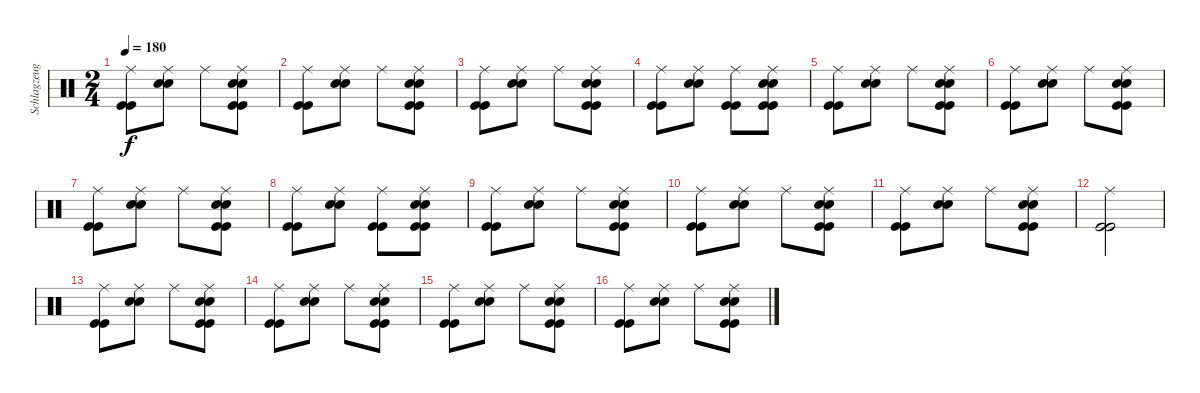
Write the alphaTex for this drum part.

\track ("Schlagzeug" "Schlagzeug") {instrument percussion}
\staff {score}
\articulation defaults
\ts (2 4)
\tempo 180
\clef neutral
\ks c
("Ride (middle)" "Kick (hit)" "Kick (hit)").8{dy f} ("Ride (middle)" "Electric Snare (hit)" "Electric Snare (hit)").8 "Ride (middle)".8 ("Ride (middle)" "Electric Snare (hit)" "Electric Snare (hit)" "Kick (hit)" "Kick (hit)").8 |
("Ride (middle)" "Kick (hit)" "Kick (hit)").8 ("Ride (middle)" "Electric Snare (hit)" "Electric Snare (hit)").8 "Ride (middle)".8 ("Ride (middle)" "Electric Snare (hit)" "Electric Snare (hit)" "Kick (hit)" "Kick (hit)").8 |
("Ride (middle)" "Kick (hit)" "Kick (hit)").8 ("Ride (middle)" "Electric Snare (hit)" "Electric Snare (hit)").8 "Ride (middle)".8 ("Ride (middle)" "Electric Snare (hit)" "Electric Snare (hit)" "Kick (hit)" "Kick (hit)").8 |
("Ride (middle)" "Kick (hit)" "Kick (hit)").8 ("Ride (middle)" "Electric Snare (hit)" "Electric Snare (hit)").8 ("Ride (middle)" "Kick (hit)" "Kick (hit)").8 ("Ride (middle)" "Electric Snare (hit)" "Electric Snare (hit)" "Kick (hit)" "Kick (hit)").8 |
("Ride (middle)" "Kick (hit)" "Kick (hit)").8 ("Ride (middle)" "Electric Snare (hit)" "Electric Snare (hit)").8 "Ride (middle)".8 ("Ride (middle)" "Electric Snare (hit)" "Electric Snare (hit)" "Kick (hit)" "Kick (hit)").8 |
("Ride (middle)" "Kick (hit)" "Kick (hit)").8 ("Ride (middle)" "Electric Snare (hit)" "Electric Snare (hit)").8 "Ride (middle)".8 ("Ride (middle)" "Electric Snare (hit)" "Electric Snare (hit)" "Kick (hit)" "Kick (hit)").8 |
("Ride (middle)" "Kick (hit)" "Kick (hit)").8 ("Ride (middle)" "Electric Snare (hit)" "Electric Snare (hit)").8 "Ride (middle)".8 ("Ride (middle)" "Electric Snare (hit)" "Electric Snare (hit)" "Kick (hit)" "Kick (hit)").8 |
("Ride (middle)" "Kick (hit)" "Kick (hit)").8 ("Ride (middle)" "Electric Snare (hit)" "Electric Snare (hit)").8 ("Ride (middle)" "Kick (hit)" "Kick (hit)").8 ("Ride (middle)" "Electric Snare (hit)" "Electric Snare (hit)" "Kick (hit)" "Kick (hit)").8 |
("Ride (middle)" "Kick (hit)" "Kick (hit)").8 ("Ride (middle)" "Electric Snare (hit)" "Electric Snare (hit)").8 "Ride (middle)".8 ("Ride (middle)" "Electric Snare (hit)" "Electric Snare (hit)" "Kick (hit)" "Kick (hit)").8 |
("Ride (middle)" "Kick (hit)" "Kick (hit)").8 ("Ride (middle)" "Electric Snare (hit)" "Electric Snare (hit)").8 "Ride (middle)".8 ("Ride (middle)" "Electric Snare (hit)" "Electric Snare (hit)" "Kick (hit)" "Kick (hit)").8 |
("Ride (middle)" "Kick (hit)" "Kick (hit)").8 ("Ride (middle)" "Electric Snare (hit)" "Electric Snare (hit)").8 "Ride (middle)".8 ("Ride (middle)" "Electric Snare (hit)" "Electric Snare (hit)" "Kick (hit)" "Kick (hit)").8 |
("Ride (middle)" "Kick (hit)" "Kick (hit)").2 |
("Ride (middle)" "Kick (hit)" "Kick (hit)").8 ("Ride (middle)" "Electric Snare (hit)" "Electric Snare (hit)").8 "Ride (middle)".8 ("Ride (middle)" "Electric Snare (hit)" "Electric Snare (hit)" "Kick (hit)" "Kick (hit)").8 |
("Ride (middle)" "Kick (hit)" "Kick (hit)").8 ("Ride (middle)" "Electric Snare (hit)" "Electric Snare (hit)").8 "Ride (middle)".8 ("Ride (middle)" "Electric Snare (hit)" "Electric Snare (hit)" "Kick (hit)" "Kick (hit)").8 |
("Ride (middle)" "Kick (hit)" "Kick (hit)").8 ("Ride (middle)" "Electric Snare (hit)" "Electric Snare (hit)").8 "Ride (middle)".8 ("Ride (middle)" "Electric Snare (hit)" "Electric Snare (hit)" "Kick (hit)" "Kick (hit)").8 |
("Ride (middle)" "Kick (hit)" "Kick (hit)").8 ("Ride (middle)" "Electric Snare (hit)" "Electric Snare (hit)").8 "Ride (middle)".8 ("Ride (middle)" "Electric Snare (hit)" "Electric Snare (hit)" "Kick (hit)" "Kick (hit)").8
